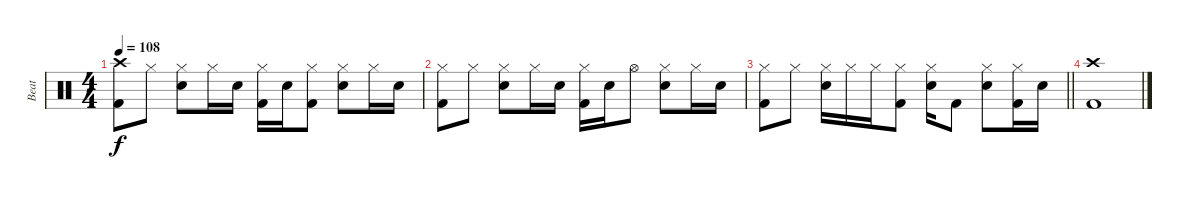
\track ("Beat" "Beat") {instrument percussion}
\staff {score}
\articulation defaults
\ts (4 4)
\tempo 108
\clef neutral
\ks c
("Crash high (hit)" "Kick (hit) 2").8{dy f} "Hi-Hat (closed)".8 ("Hi-Hat (closed)" "Snare (hit) 2").8 "Hi-Hat (closed)".16 "Snare (hit) 2".16 ("Hi-Hat (closed)" "Kick (hit) 2").16 "Snare (hit) 2".16 ("Hi-Hat (closed)" "Kick (hit) 2").8 ("Hi-Hat (closed)" "Snare (hit) 2").8 "Hi-Hat (closed)".16 "Snare (hit) 2".16 |
("Hi-Hat (closed)" "Kick (hit) 2").8 "Hi-Hat (closed)".8 ("Hi-Hat (closed)" "Snare (hit) 2").8 "Hi-Hat (closed)".16 "Snare (hit) 2".16 ("Hi-Hat (closed)" "Kick (hit) 2").16 "Snare (hit) 2".16 "Hi-Hat (open)".8 ("Hi-Hat (closed)" "Snare (hit) 2").8 "Hi-Hat (closed)".16 "Snare (hit) 2".16 |
\barLineRight lightlight
("Hi-Hat (closed)" "Kick (hit) 2").8 "Hi-Hat (closed)".8 ("Hi-Hat (closed)" "Snare (hit) 2").16 "Hi-Hat (closed)".16 "Hi-Hat (closed)".16 ("Hi-Hat (closed)" "Kick (hit) 2").8 ("Hi-Hat (closed)" "Snare (hit) 2").16 "Kick (hit) 2".8 ("Hi-Hat (closed)" "Snare (hit) 2").8 ("Hi-Hat (closed)" "Kick (hit) 2").16 "Snare (hit) 2".16 |
("Crash high (hit)" "Kick (hit) 2").1
